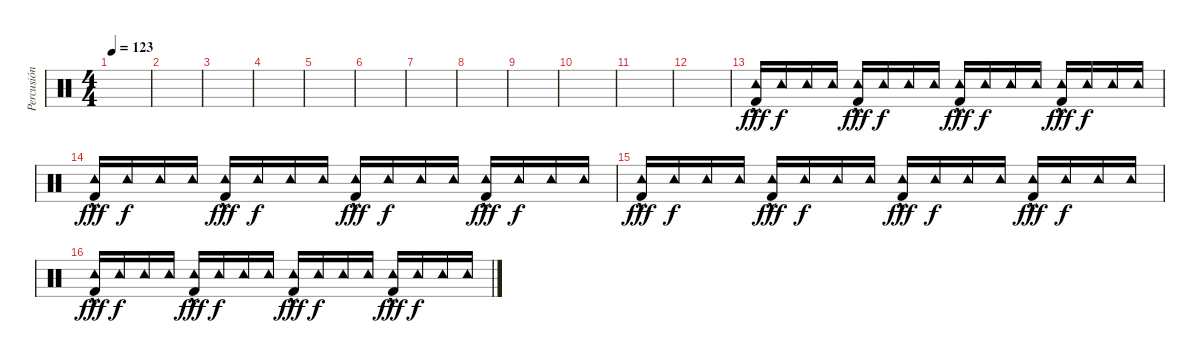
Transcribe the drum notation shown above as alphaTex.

\track ("Percusión" "Percusión") {instrument percussion}
\staff {score}
\articulation defaults
\ts (4 4)
\tempo 123
\clef neutral
\ks c
|
|
|
|
|
|
|
|
|
|
|
|
("Tambourine (hit)"{hac} "Kick (hit) 2").16{dy fff} "Tambourine (hit)".16{dy f} "Tambourine (hit)".16 "Tambourine (hit)".16 ("Tambourine (hit)"{hac} "Kick (hit) 2").16{dy fff} "Tambourine (hit)".16{dy f} "Tambourine (hit)".16 "Tambourine (hit)".16 ("Tambourine (hit)"{hac} "Kick (hit) 2").16{dy fff} "Tambourine (hit)".16{dy f} "Tambourine (hit)".16 "Tambourine (hit)".16 ("Tambourine (hit)"{hac} "Kick (hit) 2").16{dy fff} "Tambourine (hit)".16{dy f} "Tambourine (hit)".16 "Tambourine (hit)".16 |
("Tambourine (hit)"{hac} "Kick (hit) 2").16{dy fff} "Tambourine (hit)".16{dy f} "Tambourine (hit)".16 "Tambourine (hit)".16 ("Tambourine (hit)"{hac} "Kick (hit) 2").16{dy fff} "Tambourine (hit)".16{dy f} "Tambourine (hit)".16 "Tambourine (hit)".16 ("Tambourine (hit)"{hac} "Kick (hit) 2").16{dy fff} "Tambourine (hit)".16{dy f} "Tambourine (hit)".16 "Tambourine (hit)".16 ("Tambourine (hit)"{hac} "Kick (hit) 2").16{dy fff} "Tambourine (hit)".16{dy f} "Tambourine (hit)".16 "Tambourine (hit)".16 |
("Tambourine (hit)"{hac} "Kick (hit) 2").16{dy fff} "Tambourine (hit)".16{dy f} "Tambourine (hit)".16 "Tambourine (hit)".16 ("Tambourine (hit)"{hac} "Kick (hit) 2").16{dy fff} "Tambourine (hit)".16{dy f} "Tambourine (hit)".16 "Tambourine (hit)".16 ("Tambourine (hit)"{hac} "Kick (hit) 2").16{dy fff} "Tambourine (hit)".16{dy f} "Tambourine (hit)".16 "Tambourine (hit)".16 ("Tambourine (hit)"{hac} "Kick (hit) 2").16{dy fff} "Tambourine (hit)".16{dy f} "Tambourine (hit)".16 "Tambourine (hit)".16 |
("Tambourine (hit)"{hac} "Kick (hit) 2").16{dy fff} "Tambourine (hit)".16{dy f} "Tambourine (hit)".16 "Tambourine (hit)".16 ("Tambourine (hit)"{hac} "Kick (hit) 2").16{dy fff} "Tambourine (hit)".16{dy f} "Tambourine (hit)".16 "Tambourine (hit)".16 ("Tambourine (hit)"{hac} "Kick (hit) 2").16{dy fff} "Tambourine (hit)".16{dy f} "Tambourine (hit)".16 "Tambourine (hit)".16 ("Tambourine (hit)"{hac} "Kick (hit) 2").16{dy fff} "Tambourine (hit)".16{dy f} "Tambourine (hit)".16 "Tambourine (hit)".16
